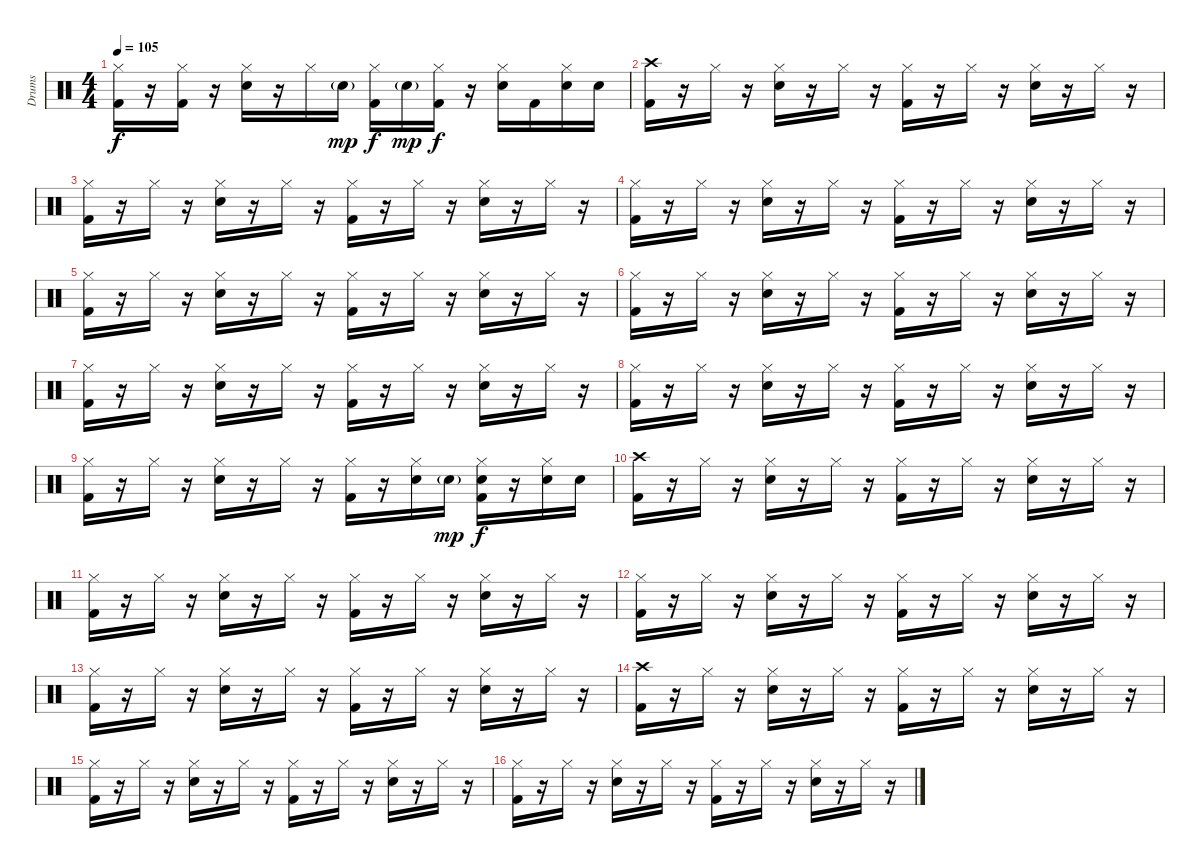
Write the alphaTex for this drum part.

\track ("Drums" "Drums") {instrument percussion}
\staff {score}
\articulation defaults
\ts (4 4)
\tempo 105
\clef neutral
\ks c
("Kick (hit) 2" "Hi-Hat (closed)").16{dy f} r.16 ("Kick (hit) 2" "Hi-Hat (closed)").16 r.16 ("Snare (hit) 2" "Hi-Hat (closed)").16 r.16 "Hi-Hat (closed)".16 "Snare (hit) 2"{g}.16{dy mp} ("Kick (hit) 2" "Hi-Hat (closed)").16{dy f} "Snare (hit) 2"{g}.16{dy mp} ("Kick (hit) 2" "Hi-Hat (closed)").16{dy f} r.16 ("Snare (hit) 2" "Hi-Hat (closed)").16 "Kick (hit) 2".16 ("Snare (hit) 2" "Hi-Hat (closed)").16 "Snare (hit) 2".16 |
("Kick (hit) 2" "Crash high (hit)").16 r.16 "Hi-Hat (closed)".16 r.16 ("Snare (hit) 2" "Hi-Hat (closed)").16 r.16 "Hi-Hat (closed)".16 r.16 ("Kick (hit) 2" "Hi-Hat (closed)").16 r.16 "Hi-Hat (closed)".16 r.16 ("Snare (hit) 2" "Hi-Hat (closed)").16 r.16 "Hi-Hat (closed)".16 r.16 |
("Kick (hit) 2" "Hi-Hat (closed)").16 r.16 "Hi-Hat (closed)".16 r.16 ("Snare (hit) 2" "Hi-Hat (closed)").16 r.16 "Hi-Hat (closed)".16 r.16 ("Kick (hit) 2" "Hi-Hat (closed)").16 r.16 "Hi-Hat (closed)".16 r.16 ("Snare (hit) 2" "Hi-Hat (closed)").16 r.16 "Hi-Hat (closed)".16 r.16 |
("Kick (hit) 2" "Hi-Hat (closed)").16 r.16 "Hi-Hat (closed)".16 r.16 ("Snare (hit) 2" "Hi-Hat (closed)").16 r.16 "Hi-Hat (closed)".16 r.16 ("Kick (hit) 2" "Hi-Hat (closed)").16 r.16 "Hi-Hat (closed)".16 r.16 ("Snare (hit) 2" "Hi-Hat (closed)").16 r.16 "Hi-Hat (closed)".16 r.16 |
("Kick (hit) 2" "Hi-Hat (closed)").16 r.16 "Hi-Hat (closed)".16 r.16 ("Snare (hit) 2" "Hi-Hat (closed)").16 r.16 "Hi-Hat (closed)".16 r.16 ("Kick (hit) 2" "Hi-Hat (closed)").16 r.16 "Hi-Hat (closed)".16 r.16 ("Snare (hit) 2" "Hi-Hat (closed)").16 r.16 "Hi-Hat (closed)".16 r.16 |
("Kick (hit) 2" "Hi-Hat (closed)").16 r.16 "Hi-Hat (closed)".16 r.16 ("Snare (hit) 2" "Hi-Hat (closed)").16 r.16 "Hi-Hat (closed)".16 r.16 ("Kick (hit) 2" "Hi-Hat (closed)").16 r.16 "Hi-Hat (closed)".16 r.16 ("Snare (hit) 2" "Hi-Hat (closed)").16 r.16 "Hi-Hat (closed)".16 r.16 |
("Kick (hit) 2" "Hi-Hat (closed)").16 r.16 "Hi-Hat (closed)".16 r.16 ("Snare (hit) 2" "Hi-Hat (closed)").16 r.16 "Hi-Hat (closed)".16 r.16 ("Kick (hit) 2" "Hi-Hat (closed)").16 r.16 "Hi-Hat (closed)".16 r.16 ("Snare (hit) 2" "Hi-Hat (closed)").16 r.16 "Hi-Hat (closed)".16 r.16 |
("Kick (hit) 2" "Hi-Hat (closed)").16 r.16 "Hi-Hat (closed)".16 r.16 ("Snare (hit) 2" "Hi-Hat (closed)").16 r.16 "Hi-Hat (closed)".16 r.16 ("Kick (hit) 2" "Hi-Hat (closed)").16 r.16 "Hi-Hat (closed)".16 r.16 ("Snare (hit) 2" "Hi-Hat (closed)").16 r.16 "Hi-Hat (closed)".16 r.16 |
("Kick (hit) 2" "Hi-Hat (closed)").16 r.16 "Hi-Hat (closed)".16 r.16 ("Snare (hit) 2" "Hi-Hat (closed)").16 r.16 "Hi-Hat (closed)".16 r.16 ("Kick (hit) 2" "Hi-Hat (closed)").16 r.16 ("Snare (hit) 2" "Hi-Hat (closed)").16 "Snare (hit) 2"{g}.16{dy mp} ("Kick (hit) 2" "Snare (hit) 2" "Hi-Hat (closed)").16{dy f} r.16 ("Snare (hit) 2" "Hi-Hat (closed)").16 "Snare (hit) 2".16 |
("Kick (hit) 2" "Crash high (hit)").16 r.16 "Hi-Hat (closed)".16 r.16 ("Snare (hit) 2" "Hi-Hat (closed)").16 r.16 "Hi-Hat (closed)".16 r.16 ("Kick (hit) 2" "Hi-Hat (closed)").16 r.16 "Hi-Hat (closed)".16 r.16 ("Snare (hit) 2" "Hi-Hat (closed)").16 r.16 "Hi-Hat (closed)".16 r.16 |
("Kick (hit) 2" "Hi-Hat (closed)").16 r.16 "Hi-Hat (closed)".16 r.16 ("Snare (hit) 2" "Hi-Hat (closed)").16 r.16 "Hi-Hat (closed)".16 r.16 ("Kick (hit) 2" "Hi-Hat (closed)").16 r.16 "Hi-Hat (closed)".16 r.16 ("Snare (hit) 2" "Hi-Hat (closed)").16 r.16 "Hi-Hat (closed)".16 r.16 |
("Kick (hit) 2" "Hi-Hat (closed)").16 r.16 "Hi-Hat (closed)".16 r.16 ("Snare (hit) 2" "Hi-Hat (closed)").16 r.16 "Hi-Hat (closed)".16 r.16 ("Kick (hit) 2" "Hi-Hat (closed)").16 r.16 "Hi-Hat (closed)".16 r.16 ("Snare (hit) 2" "Hi-Hat (closed)").16 r.16 "Hi-Hat (closed)".16 r.16 |
("Kick (hit) 2" "Hi-Hat (closed)").16 r.16 "Hi-Hat (closed)".16 r.16 ("Snare (hit) 2" "Hi-Hat (closed)").16 r.16 "Hi-Hat (closed)".16 r.16 ("Kick (hit) 2" "Hi-Hat (closed)").16 r.16 "Hi-Hat (closed)".16 r.16 ("Snare (hit) 2" "Hi-Hat (closed)").16 r.16 "Hi-Hat (closed)".16 r.16 |
("Kick (hit) 2" "Crash high (hit)").16 r.16 "Hi-Hat (closed)".16 r.16 ("Snare (hit) 2" "Hi-Hat (closed)").16 r.16 "Hi-Hat (closed)".16 r.16 ("Kick (hit) 2" "Hi-Hat (closed)").16 r.16 "Hi-Hat (closed)".16 r.16 ("Snare (hit) 2" "Hi-Hat (closed)").16 r.16 "Hi-Hat (closed)".16 r.16 |
("Kick (hit) 2" "Hi-Hat (closed)").16 r.16 "Hi-Hat (closed)".16 r.16 ("Snare (hit) 2" "Hi-Hat (closed)").16 r.16 "Hi-Hat (closed)".16 r.16 ("Kick (hit) 2" "Hi-Hat (closed)").16 r.16 "Hi-Hat (closed)".16 r.16 ("Snare (hit) 2" "Hi-Hat (closed)").16 r.16 "Hi-Hat (closed)".16 r.16 |
("Kick (hit) 2" "Hi-Hat (closed)").16 r.16 "Hi-Hat (closed)".16 r.16 ("Snare (hit) 2" "Hi-Hat (closed)").16 r.16 "Hi-Hat (closed)".16 r.16 ("Kick (hit) 2" "Hi-Hat (closed)").16 r.16 "Hi-Hat (closed)".16 r.16 ("Snare (hit) 2" "Hi-Hat (closed)").16 r.16 "Hi-Hat (closed)".16 r.16
